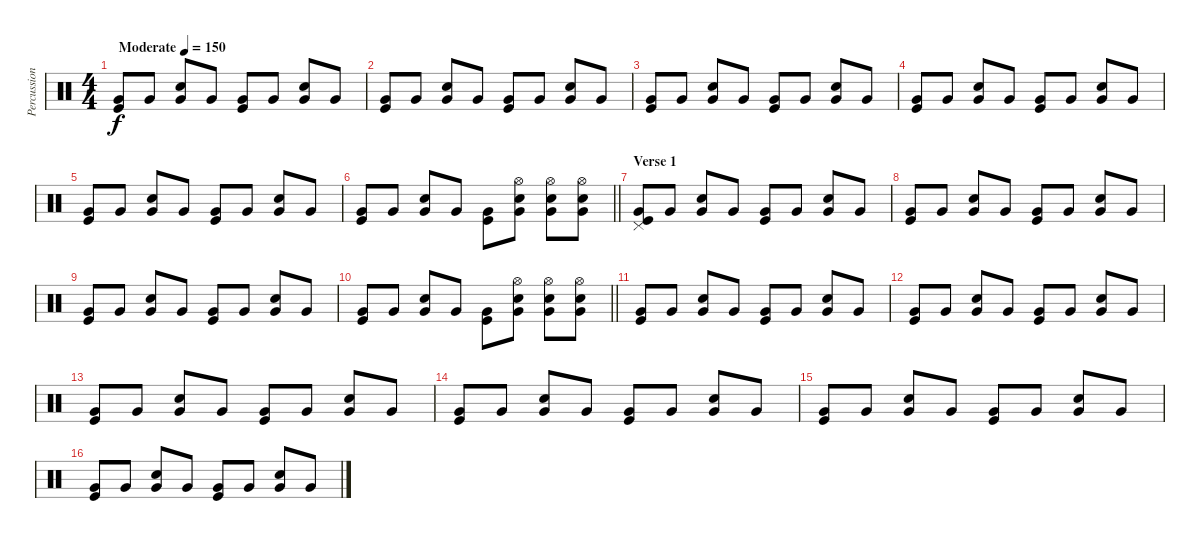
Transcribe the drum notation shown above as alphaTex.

\track ("Percussion" "Percussion") {instrument percussion}
\staff {score}
\articulation defaults
\ts (4 4)
\tempo (150 "Moderate")
\clef neutral
\ks c
("Very Low Tom (hit)" "Kick (hit)").8{dy f} "Very Low Tom (hit)".8 ("Very Low Tom (hit)" "Snare (hit) 2").8 "Very Low Tom (hit)".8 ("Very Low Tom (hit)" "Kick (hit)").8 "Very Low Tom (hit)".8 ("Very Low Tom (hit)" "Snare (hit) 2").8 "Very Low Tom (hit)".8 |
("Very Low Tom (hit)" "Kick (hit)").8 "Very Low Tom (hit)".8 ("Very Low Tom (hit)" "Snare (hit) 2").8 "Very Low Tom (hit)".8 ("Very Low Tom (hit)" "Kick (hit)").8 "Very Low Tom (hit)".8 ("Very Low Tom (hit)" "Snare (hit) 2").8 "Very Low Tom (hit)".8 |
("Very Low Tom (hit)" "Kick (hit)").8 "Very Low Tom (hit)".8 ("Very Low Tom (hit)" "Snare (hit) 2").8 "Very Low Tom (hit)".8 ("Very Low Tom (hit)" "Kick (hit)").8 "Very Low Tom (hit)".8 ("Very Low Tom (hit)" "Snare (hit) 2").8 "Very Low Tom (hit)".8 |
("Very Low Tom (hit)" "Kick (hit)").8 "Very Low Tom (hit)".8 ("Very Low Tom (hit)" "Snare (hit) 2").8 "Very Low Tom (hit)".8 ("Very Low Tom (hit)" "Kick (hit)").8 "Very Low Tom (hit)".8 ("Very Low Tom (hit)" "Snare (hit) 2").8 "Very Low Tom (hit)".8 |
("Very Low Tom (hit)" "Kick (hit)").8 "Very Low Tom (hit)".8 ("Very Low Tom (hit)" "Snare (hit) 2").8 "Very Low Tom (hit)".8 ("Very Low Tom (hit)" "Kick (hit)").8 "Very Low Tom (hit)".8 ("Very Low Tom (hit)" "Snare (hit) 2").8 "Very Low Tom (hit)".8 |
\barLineRight lightlight
("Very Low Tom (hit)" "Kick (hit)").8 "Very Low Tom (hit)".8 ("Very Low Tom (hit)" "Snare (hit) 2").8 "Very Low Tom (hit)".8 ("Very Low Tom (hit)" "Kick (hit)").8 ("Very Low Tom (hit)" "Snare (hit) 2" "Hi-Hat (open)").8 ("Very Low Tom (hit)" "Snare (hit) 2" "Hi-Hat (open)").8 ("Very Low Tom (hit)" "Snare (hit) 2" "Hi-Hat (open)").8 |
\section ("" "Verse 1")
("Very Low Tom (hit)" "Kick (hit)" "Pedal Hi-Hat (hit)").8 "Very Low Tom (hit)".8 ("Very Low Tom (hit)" "Snare (hit) 2").8 "Very Low Tom (hit)".8 ("Very Low Tom (hit)" "Kick (hit)").8 "Very Low Tom (hit)".8 ("Very Low Tom (hit)" "Snare (hit) 2").8 "Very Low Tom (hit)".8 |
("Very Low Tom (hit)" "Kick (hit)").8 "Very Low Tom (hit)".8 ("Very Low Tom (hit)" "Snare (hit) 2").8 "Very Low Tom (hit)".8 ("Very Low Tom (hit)" "Kick (hit)").8 "Very Low Tom (hit)".8 ("Very Low Tom (hit)" "Snare (hit) 2").8 "Very Low Tom (hit)".8 |
("Very Low Tom (hit)" "Kick (hit)").8 "Very Low Tom (hit)".8 ("Very Low Tom (hit)" "Snare (hit) 2").8 "Very Low Tom (hit)".8 ("Very Low Tom (hit)" "Kick (hit)").8 "Very Low Tom (hit)".8 ("Very Low Tom (hit)" "Snare (hit) 2").8 "Very Low Tom (hit)".8 |
\barLineRight lightlight
("Very Low Tom (hit)" "Kick (hit)").8 "Very Low Tom (hit)".8 ("Very Low Tom (hit)" "Snare (hit) 2").8 "Very Low Tom (hit)".8 ("Very Low Tom (hit)" "Kick (hit)").8 ("Very Low Tom (hit)" "Snare (hit) 2" "Hi-Hat (open)").8 ("Very Low Tom (hit)" "Snare (hit) 2" "Hi-Hat (open)").8 ("Very Low Tom (hit)" "Snare (hit) 2" "Hi-Hat (open)").8 |
("Very Low Tom (hit)" "Kick (hit)").8 "Very Low Tom (hit)".8 ("Very Low Tom (hit)" "Snare (hit) 2").8 "Very Low Tom (hit)".8 ("Very Low Tom (hit)" "Kick (hit)").8 "Very Low Tom (hit)".8 ("Very Low Tom (hit)" "Snare (hit) 2").8 "Very Low Tom (hit)".8 |
("Very Low Tom (hit)" "Kick (hit)").8 "Very Low Tom (hit)".8 ("Very Low Tom (hit)" "Snare (hit) 2").8 "Very Low Tom (hit)".8 ("Very Low Tom (hit)" "Kick (hit)").8 "Very Low Tom (hit)".8 ("Very Low Tom (hit)" "Snare (hit) 2").8 "Very Low Tom (hit)".8 |
("Very Low Tom (hit)" "Kick (hit)").8 "Very Low Tom (hit)".8 ("Very Low Tom (hit)" "Snare (hit) 2").8 "Very Low Tom (hit)".8 ("Very Low Tom (hit)" "Kick (hit)").8 "Very Low Tom (hit)".8 ("Very Low Tom (hit)" "Snare (hit) 2").8 "Very Low Tom (hit)".8 |
("Very Low Tom (hit)" "Kick (hit)").8 "Very Low Tom (hit)".8 ("Very Low Tom (hit)" "Snare (hit) 2").8 "Very Low Tom (hit)".8 ("Very Low Tom (hit)" "Kick (hit)").8 "Very Low Tom (hit)".8 ("Very Low Tom (hit)" "Snare (hit) 2").8 "Very Low Tom (hit)".8 |
("Very Low Tom (hit)" "Kick (hit)").8 "Very Low Tom (hit)".8 ("Very Low Tom (hit)" "Snare (hit) 2").8 "Very Low Tom (hit)".8 ("Very Low Tom (hit)" "Kick (hit)").8 "Very Low Tom (hit)".8 ("Very Low Tom (hit)" "Snare (hit) 2").8 "Very Low Tom (hit)".8 |
("Very Low Tom (hit)" "Kick (hit)").8 "Very Low Tom (hit)".8 ("Very Low Tom (hit)" "Snare (hit) 2").8 "Very Low Tom (hit)".8 ("Very Low Tom (hit)" "Kick (hit)").8 "Very Low Tom (hit)".8 ("Very Low Tom (hit)" "Snare (hit) 2").8 "Very Low Tom (hit)".8
